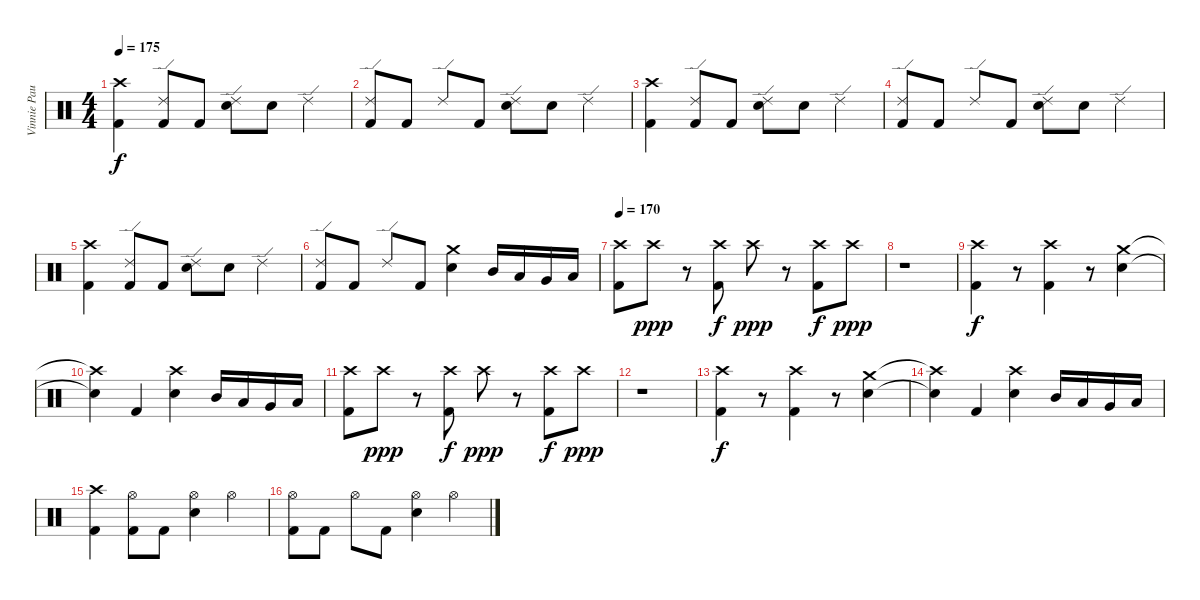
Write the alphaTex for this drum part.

\track ("Vinnie Paul (Drums)" "Vinnie Pau") {instrument percussion}
\staff {score}
\articulation defaults
\ts (4 4)
\tempo 175
\clef neutral
\ks c
("Crash high (hit)" "Kick (hit) 2").4{dy f} ("Ride (edge) 2" "Kick (hit) 2").8 "Kick (hit) 2".8 ("Ride (edge) 2" "Snare (hit) 2").8 "Snare (hit) 2".8 "Ride (edge) 2".4 |
("Ride (edge) 2" "Kick (hit) 2").8 "Kick (hit) 2".8 "Ride (edge) 2".8 "Kick (hit) 2".8 ("Ride (edge) 2" "Snare (hit) 2").8 "Snare (hit) 2".8 "Ride (edge) 2".4 |
("Crash high (hit)" "Kick (hit) 2").4 ("Ride (edge) 2" "Kick (hit) 2").8 "Kick (hit) 2".8 ("Ride (edge) 2" "Snare (hit) 2").8 "Snare (hit) 2".8 "Ride (edge) 2".4 |
("Ride (edge) 2" "Kick (hit) 2").8 "Kick (hit) 2".8 "Ride (edge) 2".8 "Kick (hit) 2".8 ("Ride (edge) 2" "Snare (hit) 2").8 "Snare (hit) 2".8 "Ride (edge) 2".4 |
("Crash high (hit)" "Kick (hit) 2").4 ("Ride (edge) 2" "Kick (hit) 2").8 "Kick (hit) 2".8 ("Ride (edge) 2" "Snare (hit) 2").8 "Snare (hit) 2".8 "Ride (edge) 2".4 |
("Ride (edge) 2" "Kick (hit) 2").8 "Kick (hit) 2".8 "Ride (edge) 2".8 "Kick (hit) 2".8 ("Crash medium (hit)" "Snare (hit) 2").4 "Mid Tom (hit)".16 "Low Tom (hit)".16 "Very Low Tom (hit)".16 "Low Floor Tom (hit)".16 |
\tempo 170
("Crash high (hit)" "Kick (hit) 2").8 "Crash high (hit)".8{dy ppp} r.8 ("Crash high (hit)" "Kick (hit) 2").8{dy f} "Crash high (hit)".8{dy ppp} r.8 ("Crash high (hit)" "Kick (hit) 2").8{dy f} "Crash high (hit)".8{dy ppp} |
r.1 |
("Crash high (hit)" "Kick (hit) 2").4{dy f} r.8 ("Crash high (hit)" "Kick (hit) 2").4 r.8 ("Crash medium (hit)" "Snare (hit) 2").4 |
("Crash high (hit)"{t} "Snare (hit)"{t}).4 "Kick (hit) 2".4 ("Crash high (hit)" "Snare (hit) 2").4 "Mid Tom (hit)".16 "Low Tom (hit)".16 "Very Low Tom (hit)".16 "Low Floor Tom (hit)".16 |
("Crash high (hit)" "Kick (hit) 2").8 "Crash high (hit)".8{dy ppp} r.8 ("Crash high (hit)" "Kick (hit) 2").8{dy f} "Crash high (hit)".8{dy ppp} r.8 ("Crash high (hit)" "Kick (hit) 2").8{dy f} "Crash high (hit)".8{dy ppp} |
r.1 |
("Crash high (hit)" "Kick (hit) 2").4{dy f} r.8 ("Crash high (hit)" "Kick (hit) 2").4 r.8 ("Crash medium (hit)" "Snare (hit) 2").4 |
("Crash high (hit)"{t} "Snare (hit)"{t}).4 "Kick (hit) 2".4 ("Crash high (hit)" "Snare (hit) 2").4 "Mid Tom (hit)".16 "Low Tom (hit)".16 "Very Low Tom (hit)".16 "Low Floor Tom (hit)".16 |
("Crash high (hit)" "Kick (hit) 2").4 ("Hi-Hat (open)" "Kick (hit) 2").8 "Kick (hit) 2".8 ("Hi-Hat (open)" "Snare (hit) 2").4 "Hi-Hat (open)".4 |
("Hi-Hat (open)" "Kick (hit) 2").8 "Kick (hit) 2".8 "Hi-Hat (open)".8 "Kick (hit) 2".8 ("Hi-Hat (open)" "Snare (hit) 2").4 "Hi-Hat (open)".4
